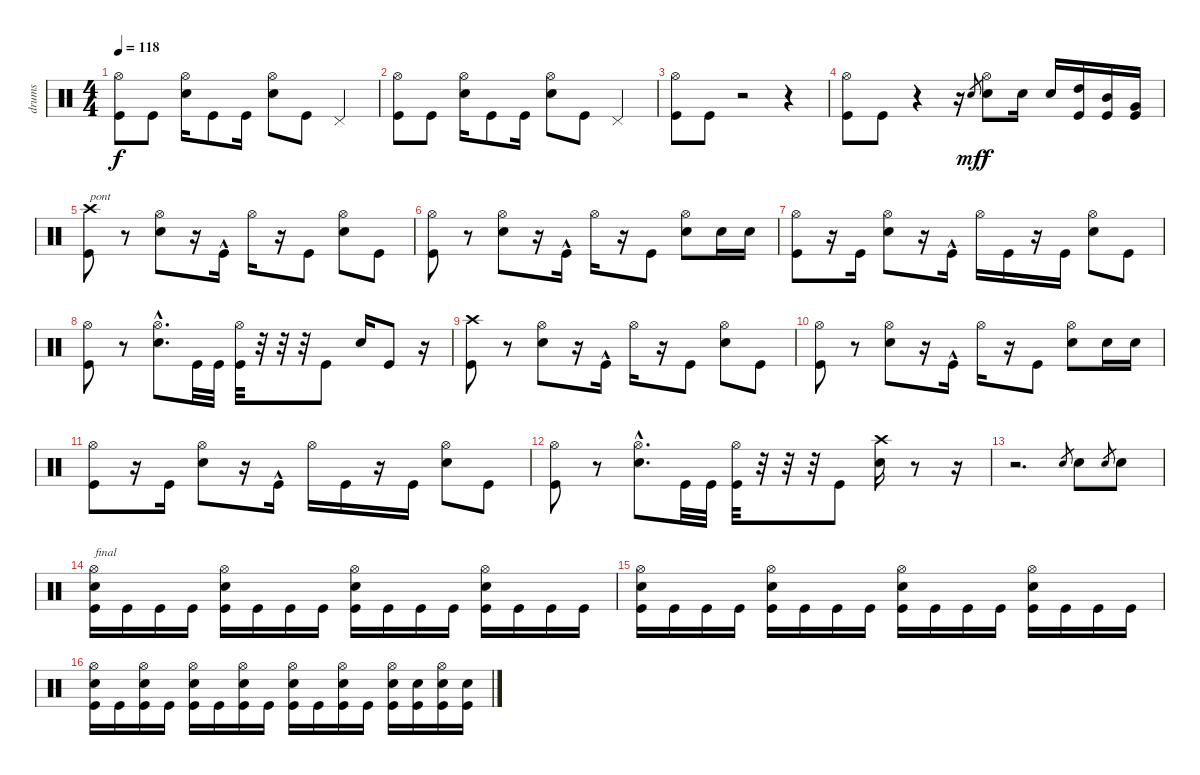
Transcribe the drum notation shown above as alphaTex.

\track ("drums" "drums") {instrument percussion}
\staff {score}
\articulation defaults
\ts (4 4)
\tempo 118
\clef neutral
\ks c
("Hi-Hat (open)" "Kick (hit)").8{dy f} "Kick (hit)".8 ("Hi-Hat (open)" "Electric Snare (hit)").16 "Kick (hit)".8 "Kick (hit)".16 ("Hi-Hat (open)" "Electric Snare (hit)").8 "Kick (hit)".8 "Pedal Hi-Hat (hit)".4 |
("Hi-Hat (open)" "Kick (hit)").8 "Kick (hit)".8 ("Hi-Hat (open)" "Electric Snare (hit)").16 "Kick (hit)".8 "Kick (hit)".16 ("Hi-Hat (open)" "Electric Snare (hit)").8 "Kick (hit)".8 "Pedal Hi-Hat (hit)".4 |
("Hi-Hat (open)" "Kick (hit)").8 "Kick (hit)".8 r.2 r.4 |
("Hi-Hat (open)" "Kick (hit)").8 "Kick (hit)".8 r.4 r.16 "Electric Snare (hit)".8{gr dy mf} ("Hi-Hat (open)" "Electric Snare (hit)").8{dy f} "Electric Snare (hit)".16 "Electric Snare (hit)".16 ("High Tom (hit)" "Kick (hit)").16 ("Mid Tom (hit)" "Kick (hit)").16 ("Very Low Tom (hit)" "Kick (hit)").16 |
("Crash high (hit)" "Kick (hit)").8{txt "pont"} r.8 ("Hi-Hat (open)" "Electric Snare (hit)").8 r.16 "Kick (hit)"{hac}.16 "Hi-Hat (open)".16 r.16 "Kick (hit)".8 ("Hi-Hat (open)" "Electric Snare (hit)").8 "Kick (hit)".8 |
("Hi-Hat (open)" "Kick (hit)").8 r.8 ("Hi-Hat (open)" "Electric Snare (hit)").8 r.16 "Kick (hit)"{hac}.16 "Hi-Hat (open)".16 r.16 "Kick (hit)".8 ("Hi-Hat (open)" "Electric Snare (hit)").8 "Electric Snare (hit)".16 "Electric Snare (hit)".16 |
("Hi-Hat (open)" "Kick (hit)").8 r.16 "Kick (hit)".16 ("Hi-Hat (open)" "Electric Snare (hit)").8 r.16 "Kick (hit)"{hac}.16 "Hi-Hat (open)".16 "Kick (hit)".16 r.16 "Kick (hit)".16 ("Hi-Hat (open)" "Electric Snare (hit)").8 "Kick (hit)".8 |
("Hi-Hat (open)" "Kick (hit)").8 r.8 ("Hi-Hat (open)"{hac} "Electric Snare (hit)"{hac}).8{d} "Kick (hit)".32 "Kick (hit)".32 ("Hi-Hat (open)" "Kick (hit)").32 r.32 r.32 r.32 "Kick (hit)".8 "Electric Snare (hit)".16 "Kick (hit)".8 r.16 |
("Crash high (hit)" "Kick (hit)").8 r.8 ("Hi-Hat (open)" "Electric Snare (hit)").8 r.16 "Kick (hit)"{hac}.16 "Hi-Hat (open)".16 r.16 "Kick (hit)".8 ("Hi-Hat (open)" "Electric Snare (hit)").8 "Kick (hit)".8 |
("Hi-Hat (open)" "Kick (hit)").8 r.8 ("Hi-Hat (open)" "Electric Snare (hit)").8 r.16 "Kick (hit)"{hac}.16 "Hi-Hat (open)".16 r.16 "Kick (hit)".8 ("Hi-Hat (open)" "Electric Snare (hit)").8 "Electric Snare (hit)".16 "Electric Snare (hit)".16 |
("Hi-Hat (open)" "Kick (hit)").8 r.16 "Kick (hit)".16 ("Hi-Hat (open)" "Electric Snare (hit)").8 r.16 "Kick (hit)"{hac}.16 "Hi-Hat (open)".16 "Kick (hit)".16 r.16 "Kick (hit)".16 ("Hi-Hat (open)" "Electric Snare (hit)").8 "Kick (hit)".8 |
("Hi-Hat (open)" "Kick (hit)").8 r.8 ("Hi-Hat (open)"{hac} "Electric Snare (hit)"{hac}).8{d} "Kick (hit)".32 "Kick (hit)".32 ("Hi-Hat (open)" "Kick (hit)").32 r.32 r.32 r.32 "Kick (hit)".8 ("Crash high (hit)" "Electric Snare (hit)").16 r.8 r.16 |
r.2{d} "Electric Snare (hit)".8{gr} "Electric Snare (hit)".8 "Electric Snare (hit)".8{gr} "Electric Snare (hit)".8 |
("Hi-Hat (open)" "Electric Snare (hit)" "Kick (hit)").16{txt "final"} "Kick (hit)".16 "Kick (hit)".16 "Kick (hit)".16 ("Hi-Hat (open)" "Electric Snare (hit)" "Kick (hit)").16 "Kick (hit)".16 "Kick (hit)".16 "Kick (hit)".16 ("Hi-Hat (open)" "Electric Snare (hit)" "Kick (hit)").16 "Kick (hit)".16 "Kick (hit)".16 "Kick (hit)".16 ("Hi-Hat (open)" "Electric Snare (hit)" "Kick (hit)").16 "Kick (hit)".16 "Kick (hit)".16 "Kick (hit)".16 |
("Hi-Hat (open)" "Electric Snare (hit)" "Kick (hit)").16 "Kick (hit)".16 "Kick (hit)".16 "Kick (hit)".16 ("Hi-Hat (open)" "Electric Snare (hit)" "Kick (hit)").16 "Kick (hit)".16 "Kick (hit)".16 "Kick (hit)".16 ("Hi-Hat (open)" "Electric Snare (hit)" "Kick (hit)").16 "Kick (hit)".16 "Kick (hit)".16 "Kick (hit)".16 ("Hi-Hat (open)" "Electric Snare (hit)" "Kick (hit)").16 "Kick (hit)".16 "Kick (hit)".16 "Kick (hit)".16 |
("Hi-Hat (open)" "Electric Snare (hit)" "Kick (hit)").16 "Kick (hit)".16 ("Hi-Hat (open)" "Electric Snare (hit)" "Kick (hit)").16 "Kick (hit)".16 ("Hi-Hat (open)" "Electric Snare (hit)" "Kick (hit)").16 "Kick (hit)".16 ("Hi-Hat (open)" "Electric Snare (hit)" "Kick (hit)").16 "Kick (hit)".16 ("Hi-Hat (open)" "Electric Snare (hit)" "Kick (hit)").16 "Kick (hit)".16 ("Hi-Hat (open)" "Electric Snare (hit)" "Kick (hit)").16 "Kick (hit)".16 ("Hi-Hat (open)" "Electric Snare (hit)" "Kick (hit)").16 ("Electric Snare (hit)" "Kick (hit)").16 ("Hi-Hat (open)" "Electric Snare (hit)" "Kick (hit)").16 ("Electric Snare (hit)" "Kick (hit)").16
